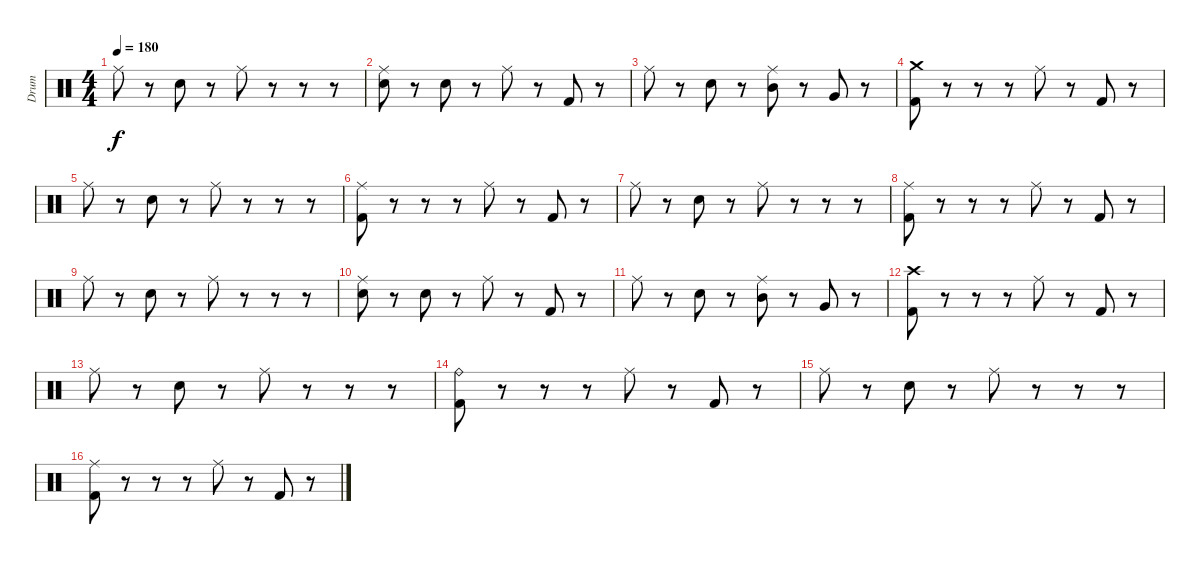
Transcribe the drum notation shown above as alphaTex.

\track ("Drum" "Drum") {instrument percussion}
\staff {score}
\articulation defaults
\ts (4 4)
\tempo 180
\clef neutral
\ks c "Ride (middle)".8{dy f}
r.8 "Snare (hit) 2".8 r.8 "Ride (middle)".8 r.8 r.8 r.8 |
("Ride (middle)" "Snare (hit) 2").8 r.8 "Snare (hit) 2".8 r.8 "Ride (middle)".8 r.8 "Kick (hit) 2".8 r.8 |
"Ride (middle)".8 r.8 "Snare (hit) 2".8 r.8 ("Ride (middle)" "Mid Tom (hit)").8 r.8 "Very Low Tom (hit)".8 r.8 |
("Crash medium (hit)" "Kick (hit) 2").8{volume 16} r.8 r.8 r.8 "Ride (middle)".8 r.8 "Kick (hit) 2".8 r.8 |
"Ride (middle)".8 r.8 "Snare (hit) 2".8 r.8 "Ride (middle)".8 r.8 r.8 r.8 |
("Ride (middle)" "Kick (hit) 2").8 r.8 r.8 r.8 "Ride (middle)".8 r.8 "Kick (hit) 2".8 r.8 |
"Ride (middle)".8 r.8 "Snare (hit) 2".8 r.8 "Ride (middle)".8 r.8 r.8 r.8 |
("Ride (middle)" "Kick (hit) 2").8 r.8 r.8 r.8 "Ride (middle)".8 r.8 "Kick (hit) 2".8 r.8 |
"Ride (middle)".8 r.8 "Snare (hit) 2".8 r.8 "Ride (middle)".8 r.8 r.8 r.8 |
("Ride (middle)" "Snare (hit) 2").8 r.8 "Snare (hit) 2".8 r.8 "Ride (middle)".8 r.8 "Kick (hit) 2".8 r.8 |
"Ride (middle)".8 r.8 "Snare (hit) 2".8 r.8 ("Ride (middle)" "Mid Tom (hit)").8 r.8 "Very Low Tom (hit)".8 r.8 |
("Crash high (hit)" "Kick (hit) 2").8{volume 16} r.8 r.8 r.8 "Ride (middle)".8 r.8 "Kick (hit) 2".8 r.8 |
"Ride (middle)".8 r.8 "Snare (hit) 2".8 r.8 "Ride (middle)".8 r.8 r.8 r.8 |
("Ride (bell)" "Kick (hit) 2").8 r.8 r.8 r.8 "Ride (middle)".8 r.8 "Kick (hit) 2".8 r.8 |
"Ride (middle)".8 r.8 "Snare (hit) 2".8 r.8 "Ride (middle)".8 r.8 r.8 r.8 |
("Ride (middle)" "Kick (hit) 2").8 r.8 r.8 r.8 "Ride (middle)".8 r.8 "Kick (hit) 2".8 r.8
